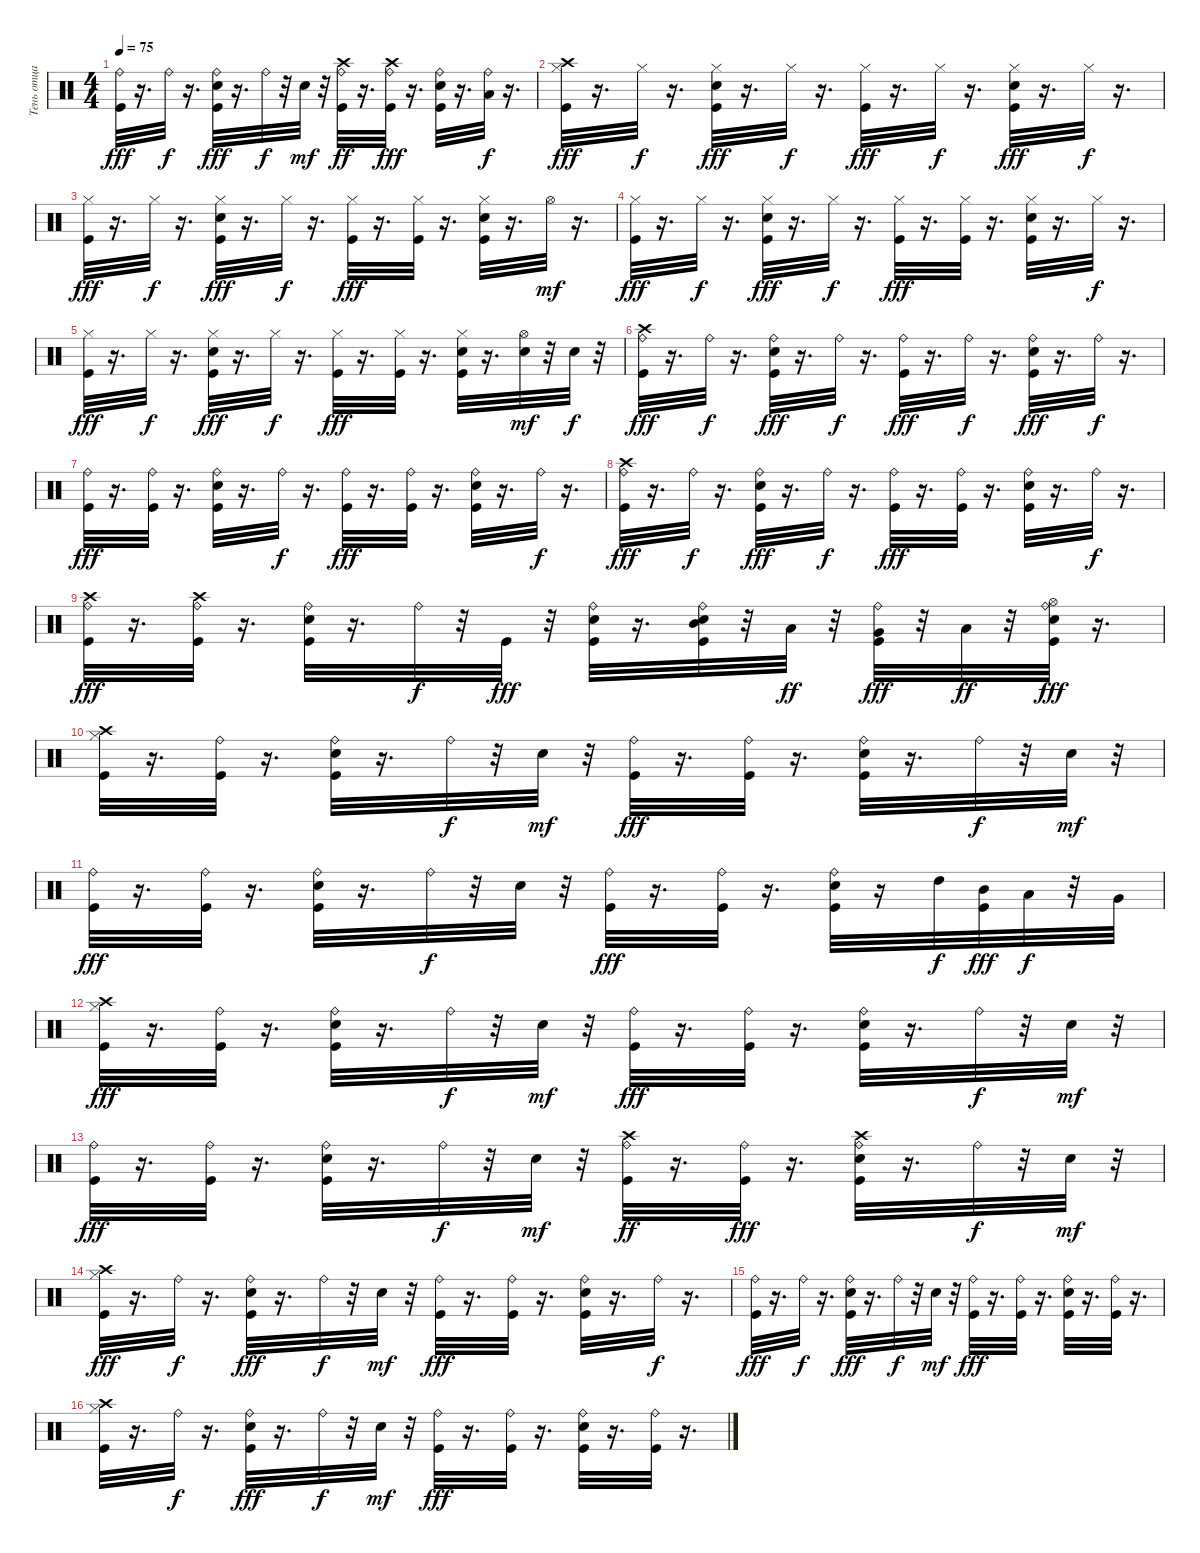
\track ("Тень отца Гамлета" "Тень отца ") {instrument percussion}
\staff {score}
\articulation defaults
\ts (4 4)
\tempo 75
\clef neutral
\ks c
("Ride (bell)" "Kick (hit)").32{dy fff} r.16{d} "Ride (bell)".32{dy f} r.16{d} ("Snare (hit) 2" "Kick (hit)" "Ride (bell)").32{dy fff} r.16{d} "Ride (bell)".32{dy f} r.32 "Snare (hit) 2".32{dy mf} r.32 ("Ride (bell)" "Kick (hit)" "Crash high (hit)").32{dy ff} r.16{d} ("Kick (hit)" "Crash high (hit)" "Ride (bell)").32{dy fff} r.16{d} ("Kick (hit)" "Snare (hit) 2" "Ride (bell)").32 r.16{d} ("Ride (bell)" "Low Floor Tom (hit)").32{dy f} r.16{d} |
("Hi-Hat (closed)" "Crash high (hit)" "Kick (hit)").32{dy fff} r.16{d} "Hi-Hat (closed)".32{dy f} r.16{d} ("Hi-Hat (closed)" "Snare (hit) 2" "Kick (hit)").32{dy fff} r.16{d} "Hi-Hat (closed)".32{dy f} r.16{d} ("Hi-Hat (closed)" "Kick (hit)").32{dy fff} r.16{d} "Hi-Hat (closed)".32{dy f} r.16{d} ("Hi-Hat (closed)" "Snare (hit) 2" "Kick (hit)").32{dy fff} r.16{d} "Hi-Hat (closed)".32{dy f} r.16{d} |
("Kick (hit)" "Hi-Hat (closed)").32{dy fff} r.16{d} "Hi-Hat (closed)".32{dy f} r.16{d} ("Snare (hit) 2" "Kick (hit)" "Hi-Hat (closed)").32{dy fff} r.16{d} "Hi-Hat (closed)".32{dy f} r.16{d} ("Kick (hit)" "Hi-Hat (closed)").32{dy fff} r.16{d} ("Kick (hit)" "Hi-Hat (closed)").32 r.16{d} ("Snare (hit) 2" "Kick (hit)" "Hi-Hat (closed)").32 r.16{d} "Hi-Hat (open)".32{dy mf} r.16{d} |
("Hi-Hat (closed)" "Kick (hit)").32{dy fff} r.16{d} "Hi-Hat (closed)".32{dy f} r.16{d} ("Hi-Hat (closed)" "Snare (hit) 2" "Kick (hit)").32{dy fff} r.16{d} "Hi-Hat (closed)".32{dy f} r.16{d} ("Hi-Hat (closed)" "Kick (hit)").32{dy fff} r.16{d} ("Hi-Hat (closed)" "Kick (hit)").32 r.16{d} ("Hi-Hat (closed)" "Snare (hit) 2" "Kick (hit)").32 r.16{d} "Hi-Hat (closed)".32{dy f} r.16{d} |
("Kick (hit)" "Hi-Hat (closed)").32{dy fff} r.16{d} "Hi-Hat (closed)".32{dy f} r.16{d} ("Snare (hit) 2" "Kick (hit)" "Hi-Hat (closed)").32{dy fff} r.16{d} "Hi-Hat (closed)".32{dy f} r.16{d} ("Kick (hit)" "Hi-Hat (closed)").32{dy fff} r.16{d} ("Kick (hit)" "Hi-Hat (closed)").32 r.16{d} ("Snare (hit) 2" "Kick (hit)" "Hi-Hat (closed)").32 r.16{d} ("Snare (hit) 2" "Hi-Hat (open)").32{dy mf} r.32 "Snare (hit) 2".32{dy f} r.32 |
("Crash high (hit)" "Kick (hit)" "Ride (bell)").32{dy fff} r.16{d} "Ride (bell)".32{dy f} r.16{d} ("Snare (hit) 2" "Kick (hit)" "Ride (bell)").32{dy fff} r.16{d} "Ride (bell)".32{dy f} r.16{d} ("Kick (hit)" "Ride (bell)").32{dy fff} r.16{d} "Ride (bell)".32{dy f} r.16{d} ("Snare (hit) 2" "Kick (hit)" "Ride (bell)").32{dy fff} r.16{d} "Ride (bell)".32{dy f} r.16{d} |
("Kick (hit)" "Ride (bell)").32{dy fff} r.16{d} ("Kick (hit)" "Ride (bell)").32 r.16{d} ("Snare (hit) 2" "Kick (hit)" "Ride (bell)").32 r.16{d} "Ride (bell)".32{dy f} r.16{d} ("Kick (hit)" "Ride (bell)").32{dy fff} r.16{d} ("Kick (hit)" "Ride (bell)").32 r.16{d} ("Snare (hit) 2" "Kick (hit)" "Ride (bell)").32 r.16{d} "Ride (bell)".32{dy f} r.16{d} |
("Crash high (hit)" "Kick (hit)" "Ride (bell)").32{dy fff} r.16{d} "Ride (bell)".32{dy f} r.16{d} ("Snare (hit) 2" "Kick (hit)" "Ride (bell)").32{dy fff} r.16{d} "Ride (bell)".32{dy f} r.16{d} ("Kick (hit)" "Ride (bell)").32{dy fff} r.16{d} ("Kick (hit)" "Ride (bell)").32 r.16{d} ("Snare (hit) 2" "Kick (hit)" "Ride (bell)").32 r.16{d} "Ride (bell)".32{dy f} r.16{d} |
("Crash high (hit)" "Kick (hit)" "Ride (bell)").32{dy fff} r.16{d} ("Ride (bell)" "Crash high (hit)" "Kick (hit)").32 r.16{d} ("Snare (hit) 2" "Kick (hit)" "Ride (bell)").32 r.16{d} "Ride (bell)".32{dy f} r.32 "Kick (hit)".32{dy fff} r.32 ("Kick (hit)" "Snare (hit) 2" "Ride (bell)").32 r.16{d} ("Mid Tom (hit)" "Snare (hit) 2" "Kick (hit)" "Ride (bell)").32 r.32 "Low Tom (hit)".32{dy ff} r.32 ("Ride (bell)" "Very Low Tom (hit)" "Kick (hit)").32{dy fff} r.32 "Low Floor Tom (hit)".32{dy ff} r.32 ("Hi-Hat (open)" "Snare (hit) 2" "Kick (hit)" "Ride (bell)").32{dy fff} r.16{d} |
("Hi-Hat (closed)" "Crash high (hit)" "Kick (hit)").32 r.16{d} ("Kick (hit)" "Ride (bell)").32 r.16{d} ("Kick (hit)" "Ride (bell)" "Snare (hit) 2").32 r.16{d} "Ride (bell)".32{dy f} r.32 "Snare (hit) 2".32{dy mf} r.32 ("Ride (bell)" "Kick (hit)").32{dy fff} r.16{d} ("Kick (hit)" "Ride (bell)").32 r.16{d} ("Kick (hit)" "Snare (hit) 2" "Ride (bell)").32 r.16{d} "Ride (bell)".32{dy f} r.32 "Snare (hit) 2".32{dy mf} r.32 |
("Ride (bell)" "Kick (hit)").32{dy fff} r.16{d} ("Ride (bell)" "Kick (hit)").32 r.16{d} ("Ride (bell)" "Snare (hit) 2" "Kick (hit)").32 r.16{d} "Ride (bell)".32{dy f} r.32 "Snare (hit) 2".32 r.32 ("Ride (bell)" "Kick (hit)").32{dy fff} r.16{d} ("Ride (bell)" "Kick (hit)").32 r.16{d} ("Ride (bell)" "Snare (hit) 2" "Kick (hit)").32 r.16 "High Tom (hit)".32{dy f} ("Kick (hit)" "Mid Tom (hit)").32{dy fff} "Low Tom (hit)".32{dy f} r.32 "Very Low Tom (hit)".32 |
("Crash high (hit)" "Kick (hit)" "Hi-Hat (closed)").32{dy fff} r.16{d} ("Ride (bell)" "Kick (hit)").32 r.16{d} ("Ride (bell)" "Snare (hit) 2" "Kick (hit)").32 r.16{d} "Ride (bell)".32{dy f} r.32 "Snare (hit) 2".32{dy mf} r.32 ("Kick (hit)" "Ride (bell)").32{dy fff} r.16{d} ("Ride (bell)" "Kick (hit)").32 r.16{d} ("Snare (hit) 2" "Kick (hit)" "Ride (bell)").32 r.16{d} "Ride (bell)".32{dy f} r.32 "Snare (hit) 2".32{dy mf} r.32 |
("Kick (hit)" "Ride (bell)").32{dy fff} r.16{d} ("Kick (hit)" "Ride (bell)").32 r.16{d} ("Snare (hit) 2" "Kick (hit)" "Ride (bell)").32 r.16{d} "Ride (bell)".32{dy f} r.32 "Snare (hit) 2".32{dy mf} r.32 ("Kick (hit)" "Ride (bell)" "Crash high (hit)").32{dy ff} r.16{d} ("Kick (hit)" "Ride (bell)").32{dy fff} r.16{d} ("Kick (hit)" "Snare (hit) 2" "Crash high (hit)" "Ride (bell)").32 r.16{d} "Ride (bell)".32{dy f} r.32 "Snare (hit) 2".32{dy mf} r.32 |
("Crash high (hit)" "Kick (hit)" "Hi-Hat (closed)").32{dy fff} r.16{d} "Ride (bell)".32{dy f} r.16{d} ("Snare (hit) 2" "Kick (hit)" "Ride (bell)").32{dy fff} r.16{d} "Ride (bell)".32{dy f} r.32 "Snare (hit) 2".32{dy mf} r.32 ("Kick (hit)" "Ride (bell)").32{dy fff} r.16{d} ("Kick (hit)" "Ride (bell)").32 r.16{d} ("Snare (hit) 2" "Kick (hit)" "Ride (bell)").32 r.16{d} "Ride (bell)".32{dy f} r.16{d} |
("Kick (hit)" "Ride (bell)").32{dy fff} r.16{d} "Ride (bell)".32{dy f} r.16{d} ("Snare (hit) 2" "Kick (hit)" "Ride (bell)").32{dy fff} r.16{d} "Ride (bell)".32{dy f} r.32 "Snare (hit) 2".32{dy mf} r.32 ("Kick (hit)" "Ride (bell)").32{dy fff} r.16{d} ("Kick (hit)" "Ride (bell)").32 r.16{d} ("Kick (hit)" "Snare (hit) 2" "Ride (bell)").32 r.16{d} ("Ride (bell)" "Kick (hit)").32 r.16{d} |
("Crash high (hit)" "Kick (hit)" "Hi-Hat (closed)").32 r.16{d} "Ride (bell)".32{dy f} r.16{d} ("Snare (hit) 2" "Kick (hit)" "Ride (bell)").32{dy fff} r.16{d} "Ride (bell)".32{dy f} r.32 "Snare (hit) 2".32{dy mf} r.32 ("Kick (hit)" "Ride (bell)").32{dy fff} r.16{d} ("Kick (hit)" "Ride (bell)").32 r.16{d} ("Snare (hit) 2" "Kick (hit)" "Ride (bell)").32 r.16{d} ("Kick (hit)" "Ride (bell)").32 r.16{d}
